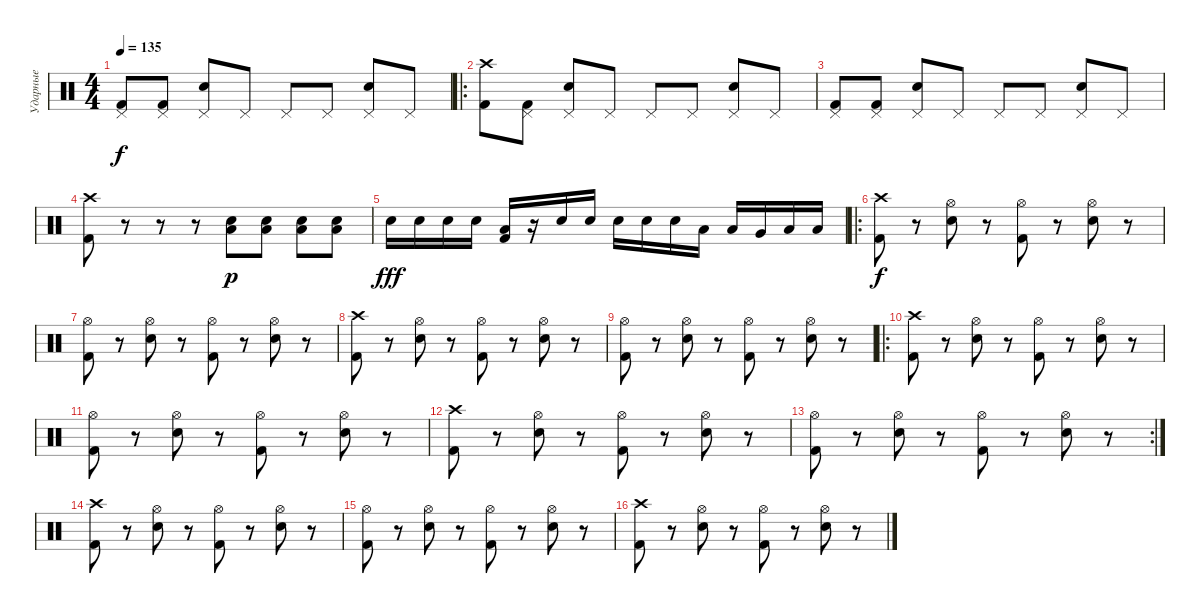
\track ("Ударные" "Ударные") {instrument percussion}
\staff
\articulation defaults
\ts (4 4)
\tempo 135
\clef neutral
\ks c
("Pedal Hi-Hat (hit)" "Kick (hit) 2").8{dy f} ("Pedal Hi-Hat (hit)" "Kick (hit) 2").8 ("Pedal Hi-Hat (hit)" "Electric Snare (hit)").8 "Pedal Hi-Hat (hit)".8 "Pedal Hi-Hat (hit)".8 "Pedal Hi-Hat (hit)".8 ("Pedal Hi-Hat (hit)" "Electric Snare (hit)").8 "Pedal Hi-Hat (hit)".8 |
\ro
("Crash high (hit)" "Kick (hit) 2").8 ("Pedal Hi-Hat (hit)" "Kick (hit) 2").8 ("Pedal Hi-Hat (hit)" "Electric Snare (hit)").8 "Pedal Hi-Hat (hit)".8 "Pedal Hi-Hat (hit)".8 "Pedal Hi-Hat (hit)".8 ("Pedal Hi-Hat (hit)" "Electric Snare (hit)").8 "Pedal Hi-Hat (hit)".8 |
("Pedal Hi-Hat (hit)" "Kick (hit) 2").8 ("Pedal Hi-Hat (hit)" "Kick (hit) 2").8 ("Pedal Hi-Hat (hit)" "Electric Snare (hit)").8 "Pedal Hi-Hat (hit)".8 "Pedal Hi-Hat (hit)".8 "Pedal Hi-Hat (hit)".8 ("Pedal Hi-Hat (hit)" "Electric Snare (hit)").8 "Pedal Hi-Hat (hit)".8 |
("Crash high (hit)" "Kick (hit) 2").8 r.8 r.8 r.8 ("Electric Snare (hit)" "Low Floor Tom (hit)").8{dy p} ("Electric Snare (hit)" "Low Floor Tom (hit)").8 ("Electric Snare (hit)" "Low Floor Tom (hit)").8 ("Electric Snare (hit)" "Low Floor Tom (hit)").8 |
"Electric Snare (hit)".16{dy fff} "Electric Snare (hit)".16 "Electric Snare (hit)".16 "Electric Snare (hit)".16 ("Low Floor Tom (hit)" "Kick (hit) 2").16 r.16 "Electric Snare (hit)".16 "Electric Snare (hit)".16 "Electric Snare (hit)".16 "Electric Snare (hit)".16 "Electric Snare (hit)".16 "Low Tom (hit)".16 "Low Tom (hit)".16 "Very Low Tom (hit)".16 "Low Floor Tom (hit)".16 "Low Floor Tom (hit)".16 |
\ro
("Crash high (hit)" "Kick (hit) 2").8{dy f} r.8 ("Hi-Hat (open)" "Electric Snare (hit)").8 r.8 ("Hi-Hat (open)" "Kick (hit) 2").8 r.8 ("Hi-Hat (open)" "Electric Snare (hit)").8 r.8 |
("Hi-Hat (open)" "Kick (hit) 2").8 r.8 ("Hi-Hat (open)" "Electric Snare (hit)").8 r.8 ("Hi-Hat (open)" "Kick (hit) 2").8 r.8 ("Hi-Hat (open)" "Electric Snare (hit)").8 r.8 |
("Crash high (hit)" "Kick (hit) 2").8 r.8 ("Hi-Hat (open)" "Electric Snare (hit)").8 r.8 ("Hi-Hat (open)" "Kick (hit) 2").8 r.8 ("Hi-Hat (open)" "Electric Snare (hit)").8 r.8 |
("Hi-Hat (open)" "Kick (hit) 2").8 r.8 ("Hi-Hat (open)" "Electric Snare (hit)").8 r.8 ("Hi-Hat (open)" "Kick (hit) 2").8 r.8 ("Hi-Hat (open)" "Electric Snare (hit)").8 r.8 |
\ro
("Crash high (hit)" "Kick (hit) 2").8 r.8 ("Hi-Hat (open)" "Electric Snare (hit)").8 r.8 ("Hi-Hat (open)" "Kick (hit) 2").8 r.8 ("Hi-Hat (open)" "Electric Snare (hit)").8 r.8 |
("Hi-Hat (open)" "Kick (hit) 2").8 r.8 ("Hi-Hat (open)" "Electric Snare (hit)").8 r.8 ("Hi-Hat (open)" "Kick (hit) 2").8 r.8 ("Hi-Hat (open)" "Electric Snare (hit)").8 r.8 |
("Crash high (hit)" "Kick (hit) 2").8 r.8 ("Hi-Hat (open)" "Electric Snare (hit)").8 r.8 ("Hi-Hat (open)" "Kick (hit) 2").8 r.8 ("Hi-Hat (open)" "Electric Snare (hit)").8 r.8 |
\rc 2
("Hi-Hat (open)" "Kick (hit) 2").8 r.8 ("Hi-Hat (open)" "Electric Snare (hit)").8 r.8 ("Hi-Hat (open)" "Kick (hit) 2").8 r.8 ("Hi-Hat (open)" "Electric Snare (hit)").8 r.8 |
("Crash high (hit)" "Kick (hit) 2").8 r.8 ("Hi-Hat (open)" "Electric Snare (hit)").8 r.8 ("Hi-Hat (open)" "Kick (hit) 2").8 r.8 ("Hi-Hat (open)" "Electric Snare (hit)").8 r.8 |
("Hi-Hat (open)" "Kick (hit) 2").8 r.8 ("Hi-Hat (open)" "Electric Snare (hit)").8 r.8 ("Hi-Hat (open)" "Kick (hit) 2").8 r.8 ("Hi-Hat (open)" "Electric Snare (hit)").8 r.8 |
("Crash high (hit)" "Kick (hit) 2").8 r.8 ("Hi-Hat (open)" "Electric Snare (hit)").8 r.8 ("Hi-Hat (open)" "Kick (hit) 2").8 r.8 ("Hi-Hat (open)" "Electric Snare (hit)").8 r.8
